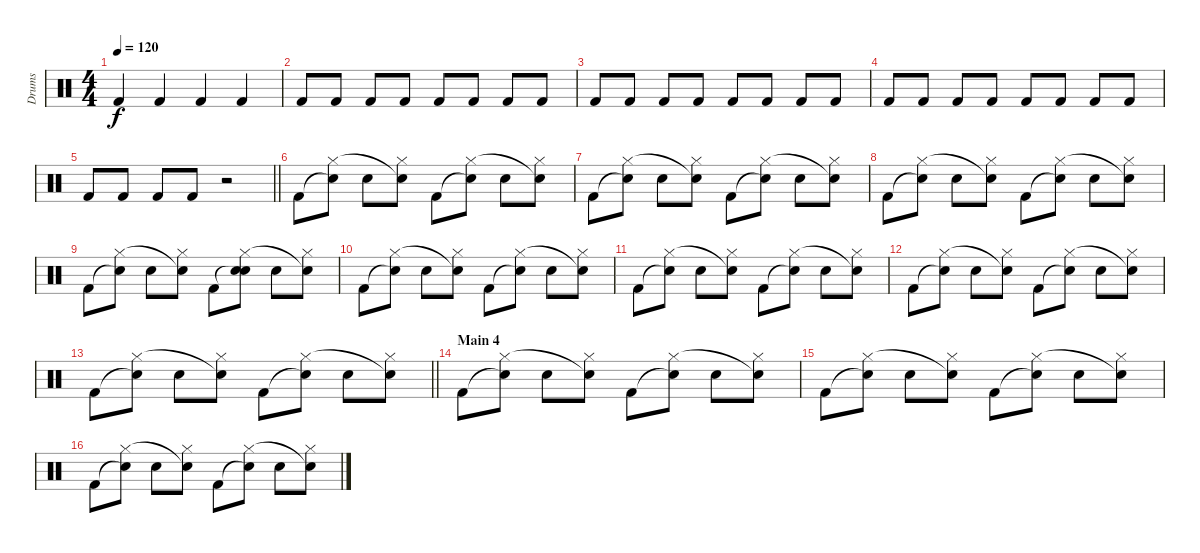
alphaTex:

\track ("Drums" "Drums") {instrument percussion}
\staff {score}
\articulation defaults
\ts (4 4)
\tempo 120
\clef neutral
\ks c "Kick (hit) 2".4{dy f} "Kick (hit) 2".4 "Kick (hit) 2".4 "Kick (hit) 2".4
|
"Kick (hit) 2".8 "Kick (hit) 2".8 "Kick (hit) 2".8 "Kick (hit) 2".8 "Kick (hit) 2".8 "Kick (hit) 2".8 "Kick (hit) 2".8 "Kick (hit) 2".8 |
"Kick (hit) 2".8 "Kick (hit) 2".8 "Kick (hit) 2".8 "Kick (hit) 2".8 "Kick (hit) 2".8 "Kick (hit) 2".8 "Kick (hit) 2".8 "Kick (hit) 2".8 |
"Kick (hit) 2".8 "Kick (hit) 2".8 "Kick (hit) 2".8 "Kick (hit) 2".8 "Kick (hit) 2".8 "Kick (hit) 2".8 "Kick (hit) 2".8 "Kick (hit) 2".8 |
\barLineRight lightlight "Kick (hit) 2".8 "Kick (hit) 2".8 "Kick (hit) 2".8 "Kick (hit) 2".8
r.2 |
\section ("" "")
"Kick (hit) 2".8 ("Snare (hit)"{t} "Hi-Hat (closed)").8 "Snare (hit) 2".8 ("Hi-Hat (closed)" "Snare (hit)"{t}).8 "Kick (hit) 2".8 ("Snare (hit)"{t} "Hi-Hat (closed)").8 "Snare (hit) 2".8 ("Hi-Hat (closed)" "Snare (hit)"{t}).8 |
"Kick (hit) 2".8 ("Snare (hit)"{t} "Hi-Hat (closed)").8 "Snare (hit) 2".8 ("Hi-Hat (closed)" "Snare (hit)"{t}).8 "Kick (hit) 2".8 ("Snare (hit)"{t} "Hi-Hat (closed)").8 "Snare (hit) 2".8 ("Hi-Hat (closed)" "Snare (hit)"{t}).8 |
"Kick (hit) 2".8 ("Snare (hit)"{t} "Hi-Hat (closed)").8 "Snare (hit) 2".8 ("Hi-Hat (closed)" "Snare (hit)"{t}).8 "Kick (hit) 2".8 ("Snare (hit)"{t} "Hi-Hat (closed)").8 "Snare (hit) 2".8 ("Hi-Hat (closed)" "Snare (hit)"{t}).8 |
"Kick (hit) 2".8 ("Snare (hit)"{t} "Hi-Hat (closed)").8 "Snare (hit) 2".8 ("Hi-Hat (closed)" "Snare (hit)"{t}).8 "Kick (hit) 2".8 ("Snare (hit)"{t} "Hi-Hat (closed)" "Snare (hit) 2").8 "Snare (hit) 2".8 ("Hi-Hat (closed)" "Snare (hit)"{t}).8 |
"Kick (hit) 2".8 ("Snare (hit)"{t} "Hi-Hat (closed)").8 "Snare (hit) 2".8 ("Hi-Hat (closed)" "Snare (hit)"{t}).8 "Kick (hit) 2".8 ("Snare (hit)"{t} "Hi-Hat (closed)").8 "Snare (hit) 2".8 ("Hi-Hat (closed)" "Snare (hit)"{t}).8 |
"Kick (hit) 2".8 ("Snare (hit)"{t} "Hi-Hat (closed)").8 "Snare (hit) 2".8 ("Hi-Hat (closed)" "Snare (hit)"{t}).8 "Kick (hit) 2".8 ("Snare (hit)"{t} "Hi-Hat (closed)").8 "Snare (hit) 2".8 ("Hi-Hat (closed)" "Snare (hit)"{t}).8 |
"Kick (hit) 2".8 ("Snare (hit)"{t} "Hi-Hat (closed)").8 "Snare (hit) 2".8 ("Hi-Hat (closed)" "Snare (hit)"{t}).8 "Kick (hit) 2".8 ("Snare (hit)"{t} "Hi-Hat (closed)").8 "Snare (hit) 2".8 ("Hi-Hat (closed)" "Snare (hit)"{t}).8 |
\barLineRight lightlight "Kick (hit) 2".8
("Snare (hit)"{t} "Hi-Hat (closed)").8 "Snare (hit) 2".8 ("Hi-Hat (closed)" "Snare (hit)"{t}).8 "Kick (hit) 2".8 ("Snare (hit)"{t} "Hi-Hat (closed)").8 "Snare (hit) 2".8 ("Hi-Hat (closed)" "Snare (hit)"{t}).8 |
\section ("" "Main 4")
"Kick (hit) 2".8 ("Snare (hit)"{t} "Hi-Hat (closed)").8 "Snare (hit) 2".8 ("Hi-Hat (closed)" "Snare (hit)"{t}).8 "Kick (hit) 2".8 ("Snare (hit)"{t} "Hi-Hat (closed)").8 "Snare (hit) 2".8 ("Hi-Hat (closed)" "Snare (hit)"{t}).8 |
"Kick (hit) 2".8 ("Snare (hit)"{t} "Hi-Hat (closed)").8 "Snare (hit) 2".8 ("Hi-Hat (closed)" "Snare (hit)"{t}).8 "Kick (hit) 2".8 ("Snare (hit)"{t} "Hi-Hat (closed)").8 "Snare (hit) 2".8 ("Hi-Hat (closed)" "Snare (hit)"{t}).8 |
"Kick (hit) 2".8 ("Snare (hit)"{t} "Hi-Hat (closed)").8 "Snare (hit) 2".8 ("Hi-Hat (closed)" "Snare (hit)"{t}).8 "Kick (hit) 2".8 ("Snare (hit)"{t} "Hi-Hat (closed)").8 "Snare (hit) 2".8 ("Hi-Hat (closed)" "Snare (hit)"{t}).8
